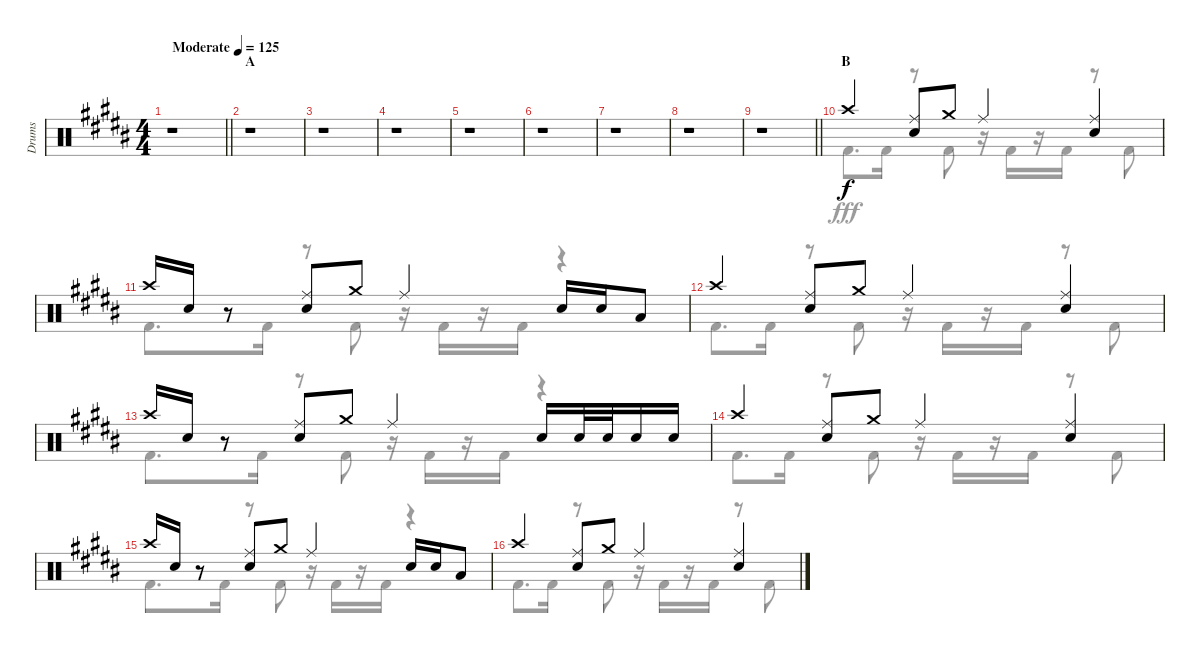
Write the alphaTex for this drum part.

\track ("Drums" "Drums") {instrument percussion}
\staff {score}
\articulation defaults
\voice
\ts (4 4)
\tempo (125 "Moderate")
\clef neutral
\barLineRight lightlight
\ks b
r.1{dy f} |
\section ("" "A")
r.1 |
r.1 |
r.1 |
r.1 |
r.1 |
r.1 |
r.1 |
\barLineRight lightlight
r.1 |
\section ("" "B")
"Crash high (hit)".4 ("Ride (middle)" "Snare (hit) 2").8 "Crash medium (hit)".8 "Ride (middle)".4 ("Ride (middle)" "Snare (hit) 2").4 |
"Crash high (hit)".16 "Snare (hit) 2".16 r.8 ("Ride (middle)" "Snare (hit) 2").8 "Crash medium (hit)".8 "Ride (middle)".4 "Snare (hit) 2".16 "Snare (hit) 2".16 "Low Tom (hit)".8 |
"Crash high (hit)".4 ("Ride (middle)" "Snare (hit) 2").8 "Crash medium (hit)".8 "Ride (middle)".4 ("Ride (middle)" "Snare (hit) 2").4 |
"Crash high (hit)".16 "Snare (hit) 2".16 r.8 ("Ride (middle)" "Snare (hit) 2").8 "Crash medium (hit)".8 "Ride (middle)".4 "Snare (hit) 2".16 "Snare (hit) 2".32 "Snare (hit) 2".32 "Snare (hit) 2".16 "Snare (hit) 2".16 |
"Crash high (hit)".4 ("Ride (middle)" "Snare (hit) 2").8 "Crash medium (hit)".8 "Ride (middle)".4 ("Ride (middle)" "Snare (hit) 2").4 |
"Crash high (hit)".16 "Snare (hit) 2".16 r.8 ("Ride (middle)" "Snare (hit) 2").8 "Crash medium (hit)".8 "Ride (middle)".4 "Snare (hit) 2".16 "Snare (hit) 2".16 "Low Tom (hit)".8 |
"Crash high (hit)".4 ("Ride (middle)" "Snare (hit) 2").8 "Crash medium (hit)".8 "Ride (middle)".4 ("Ride (middle)" "Snare (hit) 2").4
\voice
\clef neutral
\ottava regular
\simile none
\barLineRight lightlight
\ks b
r.1{dy fff} |
r.1 |
r.1 |
r.1 |
r.1 |
r.1 |
r.1 |
r.1 |
\barLineRight lightlight
r.1 |
"Kick (hit) 2".8{d} "Kick (hit) 2".16 r.8 "Kick (hit) 2".8 r.16 "Kick (hit) 2".16 r.16 "Kick (hit) 2".16 r.8 "Kick (hit) 2".8 |
"Kick (hit) 2".8{d} "Kick (hit) 2".16 r.8 "Kick (hit) 2".8 r.16 "Kick (hit) 2".16 r.16 "Kick (hit) 2".16 r.4 |
"Kick (hit) 2".8{d} "Kick (hit) 2".16 r.8 "Kick (hit) 2".8 r.16 "Kick (hit) 2".16 r.16 "Kick (hit) 2".16 r.8 "Kick (hit) 2".8 |
"Kick (hit) 2".8{d} "Kick (hit) 2".16 r.8 "Kick (hit) 2".8 r.16 "Kick (hit) 2".16 r.16 "Kick (hit) 2".16 r.4 |
"Kick (hit) 2".8{d} "Kick (hit) 2".16 r.8 "Kick (hit) 2".8 r.16 "Kick (hit) 2".16 r.16 "Kick (hit) 2".16 r.8 "Kick (hit) 2".8 |
"Kick (hit) 2".8{d} "Kick (hit) 2".16 r.8 "Kick (hit) 2".8 r.16 "Kick (hit) 2".16 r.16 "Kick (hit) 2".16 r.4 |
"Kick (hit) 2".8{d} "Kick (hit) 2".16 r.8 "Kick (hit) 2".8 r.16 "Kick (hit) 2".16 r.16 "Kick (hit) 2".16 r.8 "Kick (hit) 2".8
